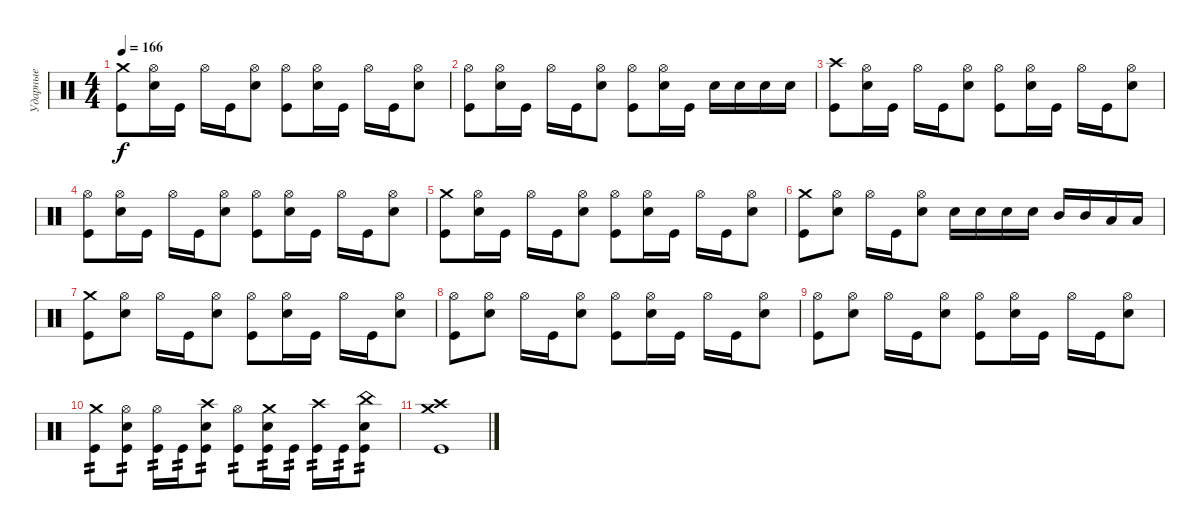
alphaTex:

\track ("Ударные" "Ударные") {instrument percussion}
\staff {score}
\articulation defaults
\ts (4 4)
\tempo 166
\clef neutral
\ks c
("Kick (hit)" "Crash medium (hit)").8{dy f} ("Electric Snare (hit)" "Hi-Hat (open)").16 "Kick (hit)".16 "Hi-Hat (open)".16 "Kick (hit)".16 ("Electric Snare (hit)" "Hi-Hat (open)").8 ("Kick (hit)" "Hi-Hat (open)").8 ("Electric Snare (hit)" "Hi-Hat (open)").16 "Kick (hit)".16 "Hi-Hat (open)".16 "Kick (hit)".16 ("Electric Snare (hit)" "Hi-Hat (open)").8 |
("Kick (hit)" "Hi-Hat (open)").8 ("Electric Snare (hit)" "Hi-Hat (open)").16 "Kick (hit)".16 "Hi-Hat (open)".16 "Kick (hit)".16 ("Electric Snare (hit)" "Hi-Hat (open)").8 ("Kick (hit)" "Hi-Hat (open)").8 ("Electric Snare (hit)" "Hi-Hat (open)").16 "Kick (hit)".16 "Electric Snare (hit)".16 "Electric Snare (hit)".16 "Electric Snare (hit)".16 "Electric Snare (hit)".16 |
("Kick (hit)" "Crash high (hit)").8 ("Electric Snare (hit)" "Hi-Hat (open)").16 "Kick (hit)".16 "Hi-Hat (open)".16 "Kick (hit)".16 ("Electric Snare (hit)" "Hi-Hat (open)").8 ("Kick (hit)" "Hi-Hat (open)").8 ("Electric Snare (hit)" "Hi-Hat (open)").16 "Kick (hit)".16 "Hi-Hat (open)".16 "Kick (hit)".16 ("Electric Snare (hit)" "Hi-Hat (open)").8 |
("Kick (hit)" "Hi-Hat (open)").8 ("Electric Snare (hit)" "Hi-Hat (open)").16 "Kick (hit)".16 "Hi-Hat (open)".16 "Kick (hit)".16 ("Electric Snare (hit)" "Hi-Hat (open)").8 ("Kick (hit)" "Hi-Hat (open)").8 ("Electric Snare (hit)" "Hi-Hat (open)").16 "Kick (hit)".16 "Hi-Hat (open)".16 "Kick (hit)".16 ("Electric Snare (hit)" "Hi-Hat (open)").8 |
("Kick (hit)" "Crash medium (hit)").8 ("Electric Snare (hit)" "Hi-Hat (open)").16 "Kick (hit)".16 "Hi-Hat (open)".16 "Kick (hit)".16 ("Electric Snare (hit)" "Hi-Hat (open)").8 ("Kick (hit)" "Hi-Hat (open)").8 ("Electric Snare (hit)" "Hi-Hat (open)").16 "Kick (hit)".16 "Hi-Hat (open)".16 "Kick (hit)".16 ("Electric Snare (hit)" "Hi-Hat (open)").8 |
("Kick (hit)" "Crash medium (hit)").8 ("Electric Snare (hit)" "Hi-Hat (open)").8 "Hi-Hat (open)".16 "Kick (hit)".16 ("Electric Snare (hit)" "Hi-Hat (open)").8 "Electric Snare (hit)".16 "Electric Snare (hit)".16 "Electric Snare (hit)".16 "Electric Snare (hit)".16 "Mid Tom (hit)".16 "Mid Tom (hit)".16 "Low Tom (hit)".16 "Low Tom (hit)".16 |
("Kick (hit)" "Crash medium (hit)").8 ("Electric Snare (hit)" "Hi-Hat (open)").8 "Hi-Hat (open)".16 "Kick (hit)".16 ("Electric Snare (hit)" "Hi-Hat (open)").8 ("Kick (hit)" "Hi-Hat (open)").8 ("Electric Snare (hit)" "Hi-Hat (open)").16 "Kick (hit)".16 "Hi-Hat (open)".16 "Kick (hit)".16 ("Electric Snare (hit)" "Hi-Hat (open)").8 |
("Kick (hit)" "Hi-Hat (open)").8 ("Electric Snare (hit)" "Hi-Hat (open)").8 "Hi-Hat (open)".16 "Kick (hit)".16 ("Electric Snare (hit)" "Hi-Hat (open)").8 ("Kick (hit)" "Hi-Hat (open)").8 ("Electric Snare (hit)" "Hi-Hat (open)").16 "Kick (hit)".16 "Hi-Hat (open)".16 "Kick (hit)".16 ("Electric Snare (hit)" "Hi-Hat (open)").8 |
("Kick (hit)" "Hi-Hat (open)").8 ("Electric Snare (hit)" "Hi-Hat (open)").8 "Hi-Hat (open)".16 "Kick (hit)".16 ("Electric Snare (hit)" "Hi-Hat (open)").8 ("Kick (hit)" "Hi-Hat (open)").8 ("Electric Snare (hit)" "Hi-Hat (open)").16 "Kick (hit)".16 "Hi-Hat (open)".16 "Kick (hit)".16 ("Electric Snare (hit)" "Hi-Hat (open)").8 |
("Kick (hit)" "Crash medium (hit)").8{tp 2} ("Electric Snare (hit)" "Hi-Hat (open)" "Kick (hit)").8{tp 2} ("Hi-Hat (open)" "Kick (hit)").16{tp 2} "Kick (hit)".16{tp 2} ("Electric Snare (hit)" "Crash high (hit)" "Kick (hit)").8{tp 2} ("Kick (hit)" "Hi-Hat (open)").8{tp 2} ("Electric Snare (hit)" "Crash medium (hit)" "Kick (hit)").16{tp 2} "Kick (hit)".16{tp 2} ("Crash high (hit)" "Kick (hit)").16{tp 2} "Kick (hit)".16{tp 2} ("Electric Snare (hit)" "China (hit)" "Kick (hit)").8{tp 2} |
("Kick (hit)" "Crash medium (hit)" "Crash high (hit)").1
